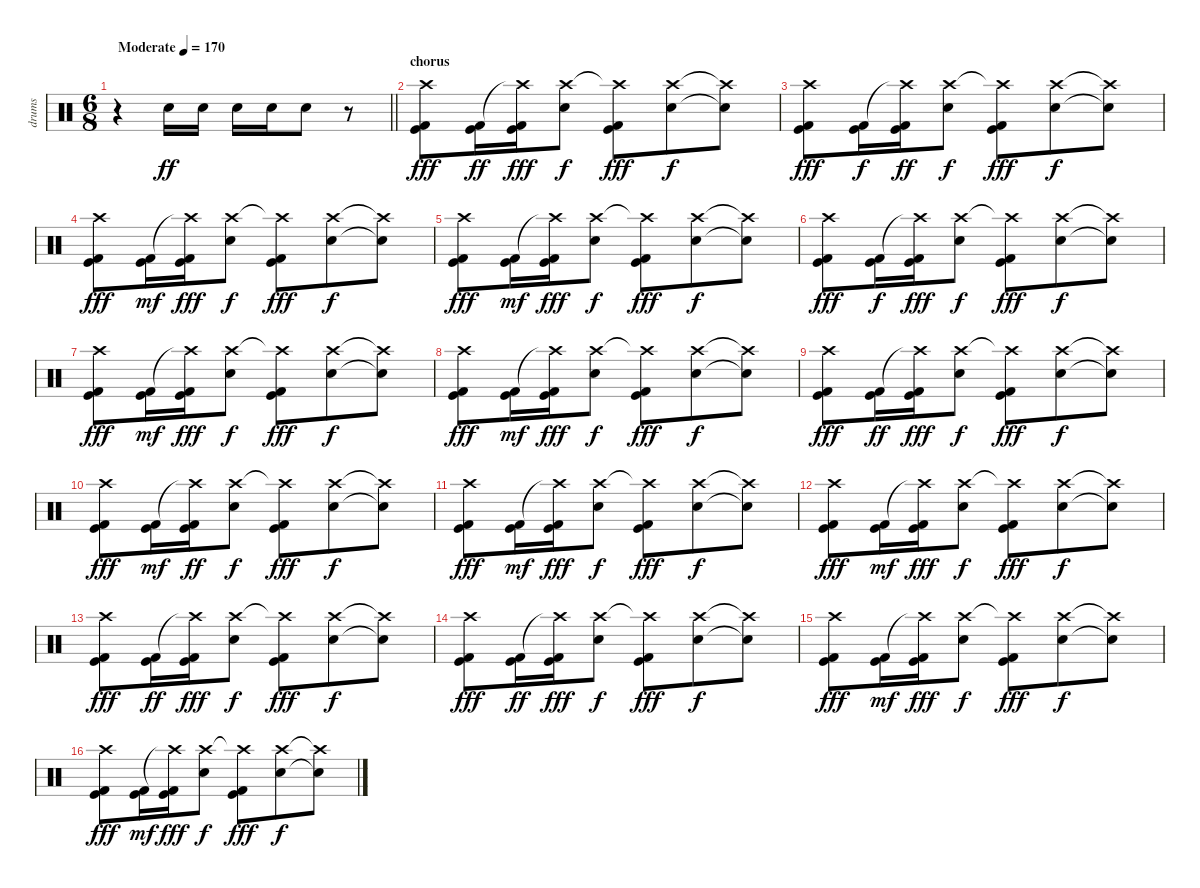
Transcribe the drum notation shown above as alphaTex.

\track ("drums " "drums ") {instrument percussion}
\staff {score}
\articulation defaults
\ts (6 8)
\tempo (170 "Moderate")
\clef neutral
\barLineRight lightlight
\ks c
r.4{dy ff} "Electric Snare (hit)".16 "Electric Snare (hit)".16 "Electric Snare (hit)".16 "Electric Snare (hit)".16 "Electric Snare (hit)".8 r.8 |
\section ("" "chorus")
("Crash high (hit)" "Kick (hit) 2" "Kick (hit)").8{dy fff} ("Kick (hit) 2" "Kick (hit)").16{dy ff} ("Crash high (hit)"{t} "Kick (hit) 2" "Kick (hit)").16{dy fff} ("Crash high (hit)" "Electric Snare (hit)").8{dy f} ("Crash high (hit)"{t} "Kick (hit) 2" "Kick (hit)").8{dy fff} ("Crash high (hit)" "Electric Snare (hit)").8{dy f} ("Crash high (hit)"{t} "Electric Snare (hit)"{t}).8 |
("Crash high (hit)" "Kick (hit) 2" "Kick (hit)").8{dy fff} ("Kick (hit) 2" "Kick (hit)").16{dy f} ("Crash high (hit)"{t} "Kick (hit) 2" "Kick (hit)").16{dy ff} ("Crash high (hit)" "Electric Snare (hit)").8{dy f} ("Crash high (hit)"{t} "Kick (hit) 2" "Kick (hit)").8{dy fff} ("Crash high (hit)" "Electric Snare (hit)").8{dy f} ("Crash high (hit)"{t} "Electric Snare (hit)"{t}).8 |
("Crash high (hit)" "Kick (hit) 2" "Kick (hit)").8{dy fff} ("Kick (hit) 2" "Kick (hit)").16{dy mf} ("Crash high (hit)"{t} "Kick (hit) 2" "Kick (hit)").16{dy fff} ("Crash high (hit)" "Electric Snare (hit)").8{dy f} ("Crash high (hit)"{t} "Kick (hit) 2" "Kick (hit)").8{dy fff} ("Crash high (hit)" "Electric Snare (hit)").8{dy f} ("Crash high (hit)"{t} "Electric Snare (hit)"{t}).8 |
("Crash high (hit)" "Kick (hit) 2" "Kick (hit)").8{dy fff} ("Kick (hit) 2" "Kick (hit)").16{dy mf} ("Crash high (hit)"{t} "Kick (hit) 2" "Kick (hit)").16{dy fff} ("Crash high (hit)" "Electric Snare (hit)").8{dy f} ("Crash high (hit)"{t} "Kick (hit) 2" "Kick (hit)").8{dy fff} ("Crash high (hit)" "Electric Snare (hit)").8{dy f} ("Crash high (hit)"{t} "Electric Snare (hit)"{t}).8 |
("Crash high (hit)" "Kick (hit) 2" "Kick (hit)").8{dy fff} ("Kick (hit) 2" "Kick (hit)").16{dy f} ("Crash high (hit)"{t} "Kick (hit) 2" "Kick (hit)").16{dy fff} ("Crash high (hit)" "Electric Snare (hit)").8{dy f} ("Crash high (hit)"{t} "Kick (hit) 2" "Kick (hit)").8{dy fff} ("Crash high (hit)" "Electric Snare (hit)").8{dy f} ("Crash high (hit)"{t} "Electric Snare (hit)"{t}).8 |
("Crash high (hit)" "Kick (hit) 2" "Kick (hit)").8{dy fff} ("Kick (hit) 2" "Kick (hit)").16{dy mf} ("Crash high (hit)"{t} "Kick (hit) 2" "Kick (hit)").16{dy fff} ("Crash high (hit)" "Electric Snare (hit)").8{dy f} ("Crash high (hit)"{t} "Kick (hit) 2" "Kick (hit)").8{dy fff} ("Crash high (hit)" "Electric Snare (hit)").8{dy f} ("Crash high (hit)"{t} "Electric Snare (hit)"{t}).8 |
("Crash high (hit)" "Kick (hit) 2" "Kick (hit)").8{dy fff} ("Kick (hit) 2" "Kick (hit)").16{dy mf} ("Crash high (hit)"{t} "Kick (hit) 2" "Kick (hit)").16{dy fff} ("Crash high (hit)" "Electric Snare (hit)").8{dy f} ("Crash high (hit)"{t} "Kick (hit) 2" "Kick (hit)").8{dy fff} ("Crash high (hit)" "Electric Snare (hit)").8{dy f} ("Crash high (hit)"{t} "Electric Snare (hit)"{t}).8 |
("Crash high (hit)" "Kick (hit) 2" "Kick (hit)").8{dy fff} ("Kick (hit) 2" "Kick (hit)").16{dy ff} ("Crash high (hit)"{t} "Kick (hit) 2" "Kick (hit)").16{dy fff} ("Crash high (hit)" "Electric Snare (hit)").8{dy f} ("Crash high (hit)"{t} "Kick (hit) 2" "Kick (hit)").8{dy fff} ("Crash high (hit)" "Electric Snare (hit)").8{dy f} ("Crash high (hit)"{t} "Electric Snare (hit)"{t}).8 |
("Crash high (hit)" "Kick (hit) 2" "Kick (hit)").8{dy fff} ("Kick (hit) 2" "Kick (hit)").16{dy mf} ("Crash high (hit)"{t} "Kick (hit) 2" "Kick (hit)").16{dy ff} ("Crash high (hit)" "Electric Snare (hit)").8{dy f} ("Crash high (hit)"{t} "Kick (hit) 2" "Kick (hit)").8{dy fff} ("Crash high (hit)" "Electric Snare (hit)").8{dy f} ("Crash high (hit)"{t} "Electric Snare (hit)"{t}).8 |
("Crash high (hit)" "Kick (hit) 2" "Kick (hit)").8{dy fff} ("Kick (hit) 2" "Kick (hit)").16{dy mf} ("Crash high (hit)"{t} "Kick (hit) 2" "Kick (hit)").16{dy fff} ("Crash high (hit)" "Electric Snare (hit)").8{dy f} ("Crash high (hit)"{t} "Kick (hit) 2" "Kick (hit)").8{dy fff} ("Crash high (hit)" "Electric Snare (hit)").8{dy f} ("Crash high (hit)"{t} "Electric Snare (hit)"{t}).8 |
("Crash high (hit)" "Kick (hit) 2" "Kick (hit)").8{dy fff} ("Kick (hit) 2" "Kick (hit)").16{dy mf} ("Crash high (hit)"{t} "Kick (hit) 2" "Kick (hit)").16{dy fff} ("Crash high (hit)" "Electric Snare (hit)").8{dy f} ("Crash high (hit)"{t} "Kick (hit) 2" "Kick (hit)").8{dy fff} ("Crash high (hit)" "Electric Snare (hit)").8{dy f} ("Crash high (hit)"{t} "Electric Snare (hit)"{t}).8 |
("Crash high (hit)" "Kick (hit) 2" "Kick (hit)").8{dy fff} ("Kick (hit) 2" "Kick (hit)").16{dy ff} ("Crash high (hit)"{t} "Kick (hit) 2" "Kick (hit)").16{dy fff} ("Crash high (hit)" "Electric Snare (hit)").8{dy f} ("Crash high (hit)"{t} "Kick (hit) 2" "Kick (hit)").8{dy fff} ("Crash high (hit)" "Electric Snare (hit)").8{dy f} ("Crash high (hit)"{t} "Electric Snare (hit)"{t}).8 |
("Crash high (hit)" "Kick (hit) 2" "Kick (hit)").8{dy fff} ("Kick (hit) 2" "Kick (hit)").16{dy ff} ("Crash high (hit)"{t} "Kick (hit) 2" "Kick (hit)").16{dy fff} ("Crash high (hit)" "Electric Snare (hit)").8{dy f} ("Crash high (hit)"{t} "Kick (hit) 2" "Kick (hit)").8{dy fff} ("Crash high (hit)" "Electric Snare (hit)").8{dy f} ("Crash high (hit)"{t} "Electric Snare (hit)"{t}).8 |
("Crash high (hit)" "Kick (hit) 2" "Kick (hit)").8{dy fff} ("Kick (hit) 2" "Kick (hit)").16{dy mf} ("Crash high (hit)"{t} "Kick (hit) 2" "Kick (hit)").16{dy fff} ("Crash high (hit)" "Electric Snare (hit)").8{dy f} ("Crash high (hit)"{t} "Kick (hit) 2" "Kick (hit)").8{dy fff} ("Crash high (hit)" "Electric Snare (hit)").8{dy f} ("Crash high (hit)"{t} "Electric Snare (hit)"{t}).8 |
("Crash high (hit)" "Kick (hit) 2" "Kick (hit)").8{dy fff} ("Kick (hit) 2" "Kick (hit)").16{dy mf} ("Crash high (hit)"{t} "Kick (hit) 2" "Kick (hit)").16{dy fff} ("Crash high (hit)" "Electric Snare (hit)").8{dy f} ("Crash high (hit)"{t} "Kick (hit) 2" "Kick (hit)").8{dy fff} ("Crash high (hit)" "Electric Snare (hit)").8{dy f} ("Crash high (hit)"{t} "Electric Snare (hit)"{t}).8
